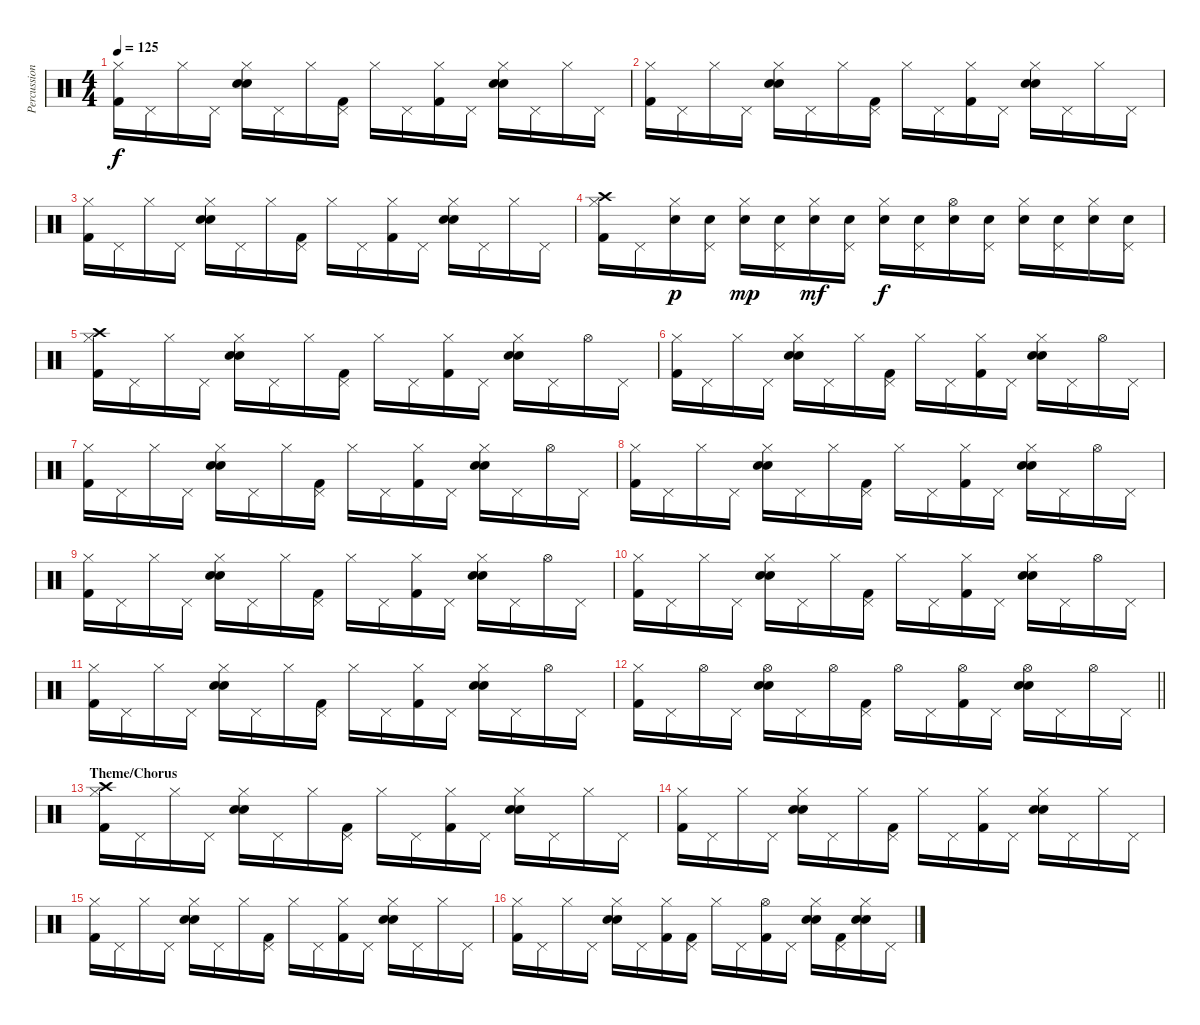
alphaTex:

\track ("Percussion" "Percussion") {instrument percussion}
\staff {score}
\articulation defaults
\ts (4 4)
\tempo 125
\clef neutral
\ks c
("Hi-Hat (closed)" "Kick (hit) 2").16{dy f} "Pedal Hi-Hat (hit)".16 "Hi-Hat (closed)".16 "Pedal Hi-Hat (hit)".16 ("Electric Snare (hit)" "Electric Snare (hit)" "Hi-Hat (closed)").16 "Pedal Hi-Hat (hit)".16 "Hi-Hat (closed)".16 ("Pedal Hi-Hat (hit)" "Kick (hit) 2").16 "Hi-Hat (closed)".16 "Pedal Hi-Hat (hit)".16 ("Hi-Hat (closed)" "Kick (hit) 2").16 "Pedal Hi-Hat (hit)".16 ("Electric Snare (hit)" "Electric Snare (hit)" "Hi-Hat (closed)").16 "Pedal Hi-Hat (hit)".16 "Hi-Hat (closed)".16 "Pedal Hi-Hat (hit)".16 |
("Hi-Hat (closed)" "Kick (hit) 2").16 "Pedal Hi-Hat (hit)".16 "Hi-Hat (closed)".16 "Pedal Hi-Hat (hit)".16 ("Electric Snare (hit)" "Electric Snare (hit)" "Hi-Hat (closed)").16 "Pedal Hi-Hat (hit)".16 "Hi-Hat (closed)".16 ("Pedal Hi-Hat (hit)" "Kick (hit) 2").16 "Hi-Hat (closed)".16 "Pedal Hi-Hat (hit)".16 ("Hi-Hat (closed)" "Kick (hit) 2").16 "Pedal Hi-Hat (hit)".16 ("Electric Snare (hit)" "Electric Snare (hit)" "Hi-Hat (closed)").16 "Pedal Hi-Hat (hit)".16 "Hi-Hat (closed)".16 "Pedal Hi-Hat (hit)".16 |
("Hi-Hat (closed)" "Kick (hit) 2").16 "Pedal Hi-Hat (hit)".16 "Hi-Hat (closed)".16 "Pedal Hi-Hat (hit)".16 ("Electric Snare (hit)" "Electric Snare (hit)" "Hi-Hat (closed)").16 "Pedal Hi-Hat (hit)".16 "Hi-Hat (closed)".16 ("Pedal Hi-Hat (hit)" "Kick (hit) 2").16 "Hi-Hat (closed)".16 "Pedal Hi-Hat (hit)".16 ("Hi-Hat (closed)" "Kick (hit) 2").16 "Pedal Hi-Hat (hit)".16 ("Electric Snare (hit)" "Electric Snare (hit)" "Hi-Hat (closed)").16 "Pedal Hi-Hat (hit)".16 "Hi-Hat (closed)".16 "Pedal Hi-Hat (hit)".16 |
("Crash high (hit)" "Hi-Hat (closed)" "Kick (hit) 2").16 "Pedal Hi-Hat (hit)".16 ("Electric Snare (hit)" "Hi-Hat (closed)").16{dy p} ("Electric Snare (hit)" "Pedal Hi-Hat (hit)").16 ("Electric Snare (hit)" "Hi-Hat (closed)").16{dy mp} ("Electric Snare (hit)" "Pedal Hi-Hat (hit)").16 ("Electric Snare (hit)" "Hi-Hat (closed)").16{dy mf} ("Electric Snare (hit)" "Pedal Hi-Hat (hit)").16 ("Electric Snare (hit)" "Hi-Hat (closed)").16{dy f} ("Electric Snare (hit)" "Pedal Hi-Hat (hit)").16 ("Electric Snare (hit)" "Hi-Hat (open)").16 ("Electric Snare (hit)" "Pedal Hi-Hat (hit)").16 ("Electric Snare (hit)" "Hi-Hat (closed)").16 ("Electric Snare (hit)" "Pedal Hi-Hat (hit)").16 ("Electric Snare (hit)" "Hi-Hat (closed)").16 ("Electric Snare (hit)" "Pedal Hi-Hat (hit)").16 |
("Crash high (hit)" "Hi-Hat (closed)" "Kick (hit) 2").16 "Pedal Hi-Hat (hit)".16 "Hi-Hat (closed)".16 "Pedal Hi-Hat (hit)".16 ("Electric Snare (hit)" "Electric Snare (hit)" "Hi-Hat (closed)").16 "Pedal Hi-Hat (hit)".16 "Hi-Hat (closed)".16 ("Pedal Hi-Hat (hit)" "Kick (hit) 2").16 "Hi-Hat (closed)".16 "Pedal Hi-Hat (hit)".16 ("Hi-Hat (closed)" "Kick (hit) 2").16 "Pedal Hi-Hat (hit)".16 ("Electric Snare (hit)" "Electric Snare (hit)" "Hi-Hat (closed)").16 "Pedal Hi-Hat (hit)".16 "Hi-Hat (open)".16 "Pedal Hi-Hat (hit)".16 |
("Hi-Hat (closed)" "Kick (hit) 2").16 "Pedal Hi-Hat (hit)".16 "Hi-Hat (closed)".16 "Pedal Hi-Hat (hit)".16 ("Electric Snare (hit)" "Electric Snare (hit)" "Hi-Hat (closed)").16 "Pedal Hi-Hat (hit)".16 "Hi-Hat (closed)".16 ("Pedal Hi-Hat (hit)" "Kick (hit) 2").16 "Hi-Hat (closed)".16 "Pedal Hi-Hat (hit)".16 ("Hi-Hat (closed)" "Kick (hit) 2").16 "Pedal Hi-Hat (hit)".16 ("Electric Snare (hit)" "Electric Snare (hit)" "Hi-Hat (closed)").16 "Pedal Hi-Hat (hit)".16 "Hi-Hat (open)".16 "Pedal Hi-Hat (hit)".16 |
("Hi-Hat (closed)" "Kick (hit) 2").16 "Pedal Hi-Hat (hit)".16 "Hi-Hat (closed)".16 "Pedal Hi-Hat (hit)".16 ("Electric Snare (hit)" "Electric Snare (hit)" "Hi-Hat (closed)").16 "Pedal Hi-Hat (hit)".16 "Hi-Hat (closed)".16 ("Pedal Hi-Hat (hit)" "Kick (hit) 2").16 "Hi-Hat (closed)".16 "Pedal Hi-Hat (hit)".16 ("Hi-Hat (closed)" "Kick (hit) 2").16 "Pedal Hi-Hat (hit)".16 ("Electric Snare (hit)" "Electric Snare (hit)" "Hi-Hat (closed)").16 "Pedal Hi-Hat (hit)".16 "Hi-Hat (open)".16 "Pedal Hi-Hat (hit)".16 |
("Hi-Hat (closed)" "Kick (hit) 2").16 "Pedal Hi-Hat (hit)".16 "Hi-Hat (closed)".16 "Pedal Hi-Hat (hit)".16 ("Electric Snare (hit)" "Electric Snare (hit)" "Hi-Hat (closed)").16 "Pedal Hi-Hat (hit)".16 "Hi-Hat (closed)".16 ("Pedal Hi-Hat (hit)" "Kick (hit) 2").16 "Hi-Hat (closed)".16 "Pedal Hi-Hat (hit)".16 ("Hi-Hat (closed)" "Kick (hit) 2").16 "Pedal Hi-Hat (hit)".16 ("Electric Snare (hit)" "Electric Snare (hit)" "Hi-Hat (closed)").16 "Pedal Hi-Hat (hit)".16 "Hi-Hat (open)".16 "Pedal Hi-Hat (hit)".16 |
("Hi-Hat (closed)" "Kick (hit) 2").16 "Pedal Hi-Hat (hit)".16 "Hi-Hat (closed)".16 "Pedal Hi-Hat (hit)".16 ("Electric Snare (hit)" "Electric Snare (hit)" "Hi-Hat (closed)").16 "Pedal Hi-Hat (hit)".16 "Hi-Hat (closed)".16 ("Pedal Hi-Hat (hit)" "Kick (hit) 2").16 "Hi-Hat (closed)".16 "Pedal Hi-Hat (hit)".16 ("Hi-Hat (closed)" "Kick (hit) 2").16 "Pedal Hi-Hat (hit)".16 ("Electric Snare (hit)" "Electric Snare (hit)" "Hi-Hat (closed)").16 "Pedal Hi-Hat (hit)".16 "Hi-Hat (open)".16 "Pedal Hi-Hat (hit)".16 |
("Hi-Hat (closed)" "Kick (hit) 2").16 "Pedal Hi-Hat (hit)".16 "Hi-Hat (closed)".16 "Pedal Hi-Hat (hit)".16 ("Electric Snare (hit)" "Electric Snare (hit)" "Hi-Hat (closed)").16 "Pedal Hi-Hat (hit)".16 "Hi-Hat (closed)".16 ("Pedal Hi-Hat (hit)" "Kick (hit) 2").16 "Hi-Hat (closed)".16 "Pedal Hi-Hat (hit)".16 ("Hi-Hat (closed)" "Kick (hit) 2").16 "Pedal Hi-Hat (hit)".16 ("Electric Snare (hit)" "Electric Snare (hit)" "Hi-Hat (closed)").16 "Pedal Hi-Hat (hit)".16 "Hi-Hat (open)".16 "Pedal Hi-Hat (hit)".16 |
("Hi-Hat (closed)" "Kick (hit) 2").16 "Pedal Hi-Hat (hit)".16 "Hi-Hat (closed)".16 "Pedal Hi-Hat (hit)".16 ("Electric Snare (hit)" "Electric Snare (hit)" "Hi-Hat (closed)").16 "Pedal Hi-Hat (hit)".16 "Hi-Hat (closed)".16 ("Pedal Hi-Hat (hit)" "Kick (hit) 2").16 "Hi-Hat (closed)".16 "Pedal Hi-Hat (hit)".16 ("Hi-Hat (closed)" "Kick (hit) 2").16 "Pedal Hi-Hat (hit)".16 ("Electric Snare (hit)" "Electric Snare (hit)" "Hi-Hat (closed)").16 "Pedal Hi-Hat (hit)".16 "Hi-Hat (open)".16 "Pedal Hi-Hat (hit)".16 |
\barLineRight lightlight
("Hi-Hat (closed)" "Kick (hit) 2").16 "Pedal Hi-Hat (hit)".16 "Hi-Hat (open)".16 "Pedal Hi-Hat (hit)".16 ("Electric Snare (hit)" "Electric Snare (hit)" "Hi-Hat (open)").16 "Pedal Hi-Hat (hit)".16 "Hi-Hat (open)".16 ("Pedal Hi-Hat (hit)" "Kick (hit) 2").16 "Hi-Hat (open)".16 "Pedal Hi-Hat (hit)".16 ("Hi-Hat (open)" "Kick (hit) 2").16 "Pedal Hi-Hat (hit)".16 ("Electric Snare (hit)" "Electric Snare (hit)" "Hi-Hat (open)").16 "Pedal Hi-Hat (hit)".16 "Hi-Hat (open)".16 "Pedal Hi-Hat (hit)".16 |
\section ("" "Theme/Chorus")
("Crash high (hit)" "Hi-Hat (closed)" "Kick (hit) 2").16 "Pedal Hi-Hat (hit)".16 "Hi-Hat (closed)".16 "Pedal Hi-Hat (hit)".16 ("Electric Snare (hit)" "Electric Snare (hit)" "Hi-Hat (closed)").16 "Pedal Hi-Hat (hit)".16 "Hi-Hat (closed)".16 ("Pedal Hi-Hat (hit)" "Kick (hit) 2").16 "Hi-Hat (closed)".16 "Pedal Hi-Hat (hit)".16 ("Hi-Hat (closed)" "Kick (hit) 2").16 "Pedal Hi-Hat (hit)".16 ("Electric Snare (hit)" "Electric Snare (hit)" "Hi-Hat (closed)").16 "Pedal Hi-Hat (hit)".16 "Hi-Hat (closed)".16 "Pedal Hi-Hat (hit)".16 |
("Hi-Hat (closed)" "Kick (hit) 2").16 "Pedal Hi-Hat (hit)".16 "Hi-Hat (closed)".16 "Pedal Hi-Hat (hit)".16 ("Electric Snare (hit)" "Electric Snare (hit)" "Hi-Hat (closed)").16 "Pedal Hi-Hat (hit)".16 "Hi-Hat (closed)".16 ("Pedal Hi-Hat (hit)" "Kick (hit) 2").16 "Hi-Hat (closed)".16 "Pedal Hi-Hat (hit)".16 ("Hi-Hat (closed)" "Kick (hit) 2").16 "Pedal Hi-Hat (hit)".16 ("Electric Snare (hit)" "Electric Snare (hit)" "Hi-Hat (closed)").16 "Pedal Hi-Hat (hit)".16 "Hi-Hat (closed)".16 "Pedal Hi-Hat (hit)".16 |
("Hi-Hat (closed)" "Kick (hit) 2").16 "Pedal Hi-Hat (hit)".16 "Hi-Hat (closed)".16 "Pedal Hi-Hat (hit)".16 ("Electric Snare (hit)" "Electric Snare (hit)" "Hi-Hat (closed)").16 "Pedal Hi-Hat (hit)".16 "Hi-Hat (closed)".16 ("Pedal Hi-Hat (hit)" "Kick (hit) 2").16 "Hi-Hat (closed)".16 "Pedal Hi-Hat (hit)".16 ("Hi-Hat (closed)" "Kick (hit) 2").16 "Pedal Hi-Hat (hit)".16 ("Electric Snare (hit)" "Electric Snare (hit)" "Hi-Hat (closed)").16 "Pedal Hi-Hat (hit)".16 "Hi-Hat (closed)".16 "Pedal Hi-Hat (hit)".16 |
("Hi-Hat (closed)" "Kick (hit) 2").16 "Pedal Hi-Hat (hit)".16 "Hi-Hat (closed)".16 "Pedal Hi-Hat (hit)".16 ("Electric Snare (hit)" "Electric Snare (hit)" "Hi-Hat (closed)").16 "Pedal Hi-Hat (hit)".16 ("Hi-Hat (closed)" "Kick (hit) 2").16 ("Pedal Hi-Hat (hit)" "Kick (hit) 2").16 "Hi-Hat (closed)".16 "Pedal Hi-Hat (hit)".16 ("Hi-Hat (open)" "Kick (hit) 2").16 "Pedal Hi-Hat (hit)".16 ("Electric Snare (hit)" "Electric Snare (hit)" "Hi-Hat (closed)").16 ("Pedal Hi-Hat (hit)" "Kick (hit) 2").16 ("Electric Snare (hit)" "Electric Snare (hit)" "Hi-Hat (closed)").16 "Pedal Hi-Hat (hit)".16
